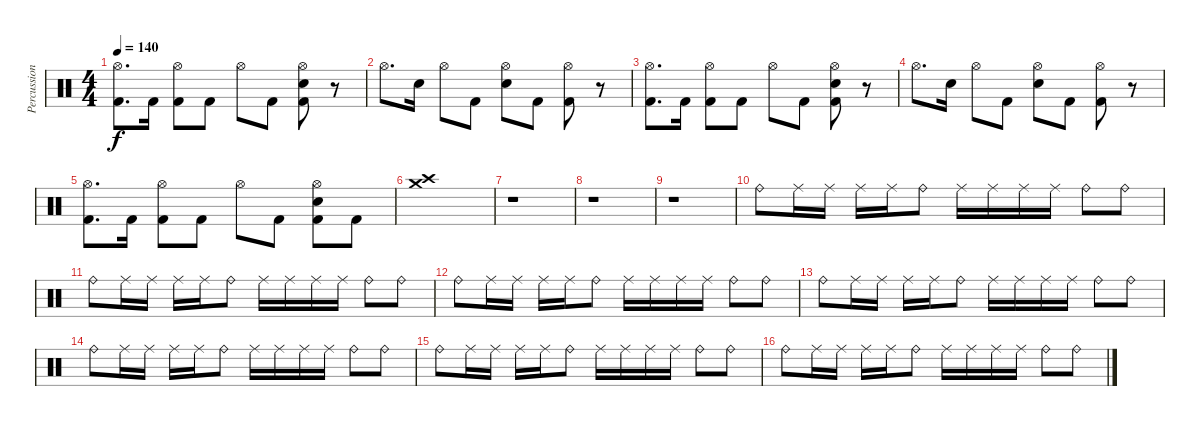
\track ("Percussion" "Percussion") {instrument percussion}
\staff {score}
\articulation defaults
\ts (4 4)
\tempo 140
\clef neutral
\ks c
("Hi-Hat (open)" "Kick (hit) 2").8{d dy f} "Kick (hit) 2".16 ("Hi-Hat (open)" "Kick (hit) 2").8 "Kick (hit) 2".8 "Hi-Hat (open)".8 "Kick (hit) 2".8 ("Hi-Hat (open)" "Snare (hit) 2" "Kick (hit) 2").8 r.8 |
"Hi-Hat (open)".8{d} "Snare (hit) 2".16 "Hi-Hat (open)".8 "Kick (hit) 2".8 ("Hi-Hat (open)" "Snare (hit) 2").8 "Kick (hit) 2".8 ("Hi-Hat (open)" "Kick (hit) 2").8 r.8 |
("Hi-Hat (open)" "Kick (hit) 2").8{d} "Kick (hit) 2".16 ("Hi-Hat (open)" "Kick (hit) 2").8 "Kick (hit) 2".8 "Hi-Hat (open)".8 "Kick (hit) 2".8 ("Hi-Hat (open)" "Snare (hit) 2" "Kick (hit) 2").8 r.8 |
"Hi-Hat (open)".8{d} "Snare (hit) 2".16 "Hi-Hat (open)".8 "Kick (hit) 2".8 ("Hi-Hat (open)" "Snare (hit) 2").8 "Kick (hit) 2".8 ("Hi-Hat (open)" "Kick (hit) 2").8 r.8 |
("Hi-Hat (open)" "Kick (hit) 2").8{d} "Kick (hit) 2".16 ("Hi-Hat (open)" "Kick (hit) 2").8 "Kick (hit) 2".8 "Hi-Hat (open)".8 "Kick (hit) 2".8 ("Hi-Hat (open)" "Snare (hit) 2" "Kick (hit) 2").8 "Kick (hit) 2".8 |
("Crash medium (hit)" "Crash high (hit)").1 |
r.1 |
r.1 |
r.1 |
"Ride (bell)".8 "Ride (middle)".16 "Ride (middle)".16 "Ride (middle)".16 "Ride (middle)".16 "Ride (bell)".8 "Ride (middle)".16 "Ride (middle)".16 "Ride (middle)".16 "Ride (middle)".16 "Ride (bell)".8 "Ride (bell)".8 |
"Ride (bell)".8 "Ride (middle)".16 "Ride (middle)".16 "Ride (middle)".16 "Ride (middle)".16 "Ride (bell)".8 "Ride (middle)".16 "Ride (middle)".16 "Ride (middle)".16 "Ride (middle)".16 "Ride (bell)".8 "Ride (bell)".8 |
"Ride (bell)".8 "Ride (middle)".16 "Ride (middle)".16 "Ride (middle)".16 "Ride (middle)".16 "Ride (bell)".8 "Ride (middle)".16 "Ride (middle)".16 "Ride (middle)".16 "Ride (middle)".16 "Ride (bell)".8 "Ride (bell)".8 |
"Ride (bell)".8 "Ride (middle)".16 "Ride (middle)".16 "Ride (middle)".16 "Ride (middle)".16 "Ride (bell)".8 "Ride (middle)".16 "Ride (middle)".16 "Ride (middle)".16 "Ride (middle)".16 "Ride (bell)".8 "Ride (bell)".8 |
"Ride (bell)".8 "Ride (middle)".16 "Ride (middle)".16 "Ride (middle)".16 "Ride (middle)".16 "Ride (bell)".8 "Ride (middle)".16 "Ride (middle)".16 "Ride (middle)".16 "Ride (middle)".16 "Ride (bell)".8 "Ride (bell)".8 |
"Ride (bell)".8 "Ride (middle)".16 "Ride (middle)".16 "Ride (middle)".16 "Ride (middle)".16 "Ride (bell)".8 "Ride (middle)".16 "Ride (middle)".16 "Ride (middle)".16 "Ride (middle)".16 "Ride (bell)".8 "Ride (bell)".8 |
"Ride (bell)".8 "Ride (middle)".16 "Ride (middle)".16 "Ride (middle)".16 "Ride (middle)".16 "Ride (bell)".8 "Ride (middle)".16 "Ride (middle)".16 "Ride (middle)".16 "Ride (middle)".16 "Ride (bell)".8 "Ride (bell)".8
